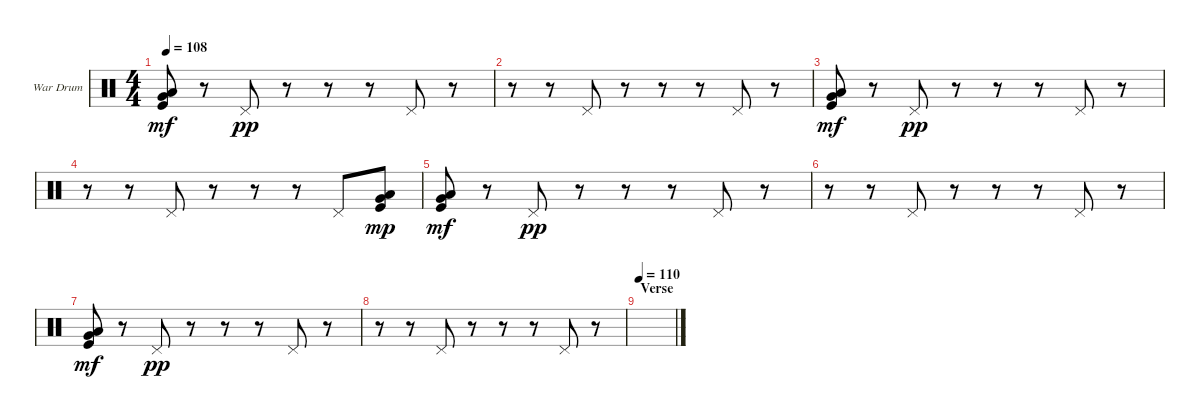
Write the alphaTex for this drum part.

\defaultSystemsLayout 4
\bracketExtendMode groupsimilarinstruments
\firstSystemTrackNameOrientation horizontal
\otherSystemsTrackNameOrientation horizontal
\track ("War Drum" "War Drum") {instrument percussion}
\staff {score}
\articulation defaults
\ts (4 4)
\tempo 108
\clef neutral
\ks c
("Kick (hit)" "Low Tom (hit)" "Very Low Tom (hit)").8{dy mf} r.8 "Pedal Hi-Hat (hit)".8{dy pp} r.8 r.8 r.8 "Pedal Hi-Hat (hit)".8 r.8 |
r.8 r.8 "Pedal Hi-Hat (hit)".8 r.8 r.8 r.8 "Pedal Hi-Hat (hit)".8 r.8 |
("Kick (hit)" "Low Tom (hit)" "Very Low Tom (hit)").8{dy mf} r.8 "Pedal Hi-Hat (hit)".8{dy pp} r.8 r.8 r.8 "Pedal Hi-Hat (hit)".8 r.8 |
r.8 r.8 "Pedal Hi-Hat (hit)".8 r.8 r.8 r.8 "Pedal Hi-Hat (hit)".8 ("Kick (hit)" "Low Tom (hit)" "Very Low Tom (hit)").8{dy mp} |
("Kick (hit)" "Low Tom (hit)" "Very Low Tom (hit)").8{dy mf} r.8 "Pedal Hi-Hat (hit)".8{dy pp} r.8 r.8 r.8 "Pedal Hi-Hat (hit)".8 r.8 |
r.8 r.8 "Pedal Hi-Hat (hit)".8 r.8 r.8 r.8 "Pedal Hi-Hat (hit)".8 r.8 |
("Kick (hit)" "Low Tom (hit)" "Very Low Tom (hit)").8{dy mf} r.8 "Pedal Hi-Hat (hit)".8{dy pp} r.8 r.8 r.8 "Pedal Hi-Hat (hit)".8 r.8 |
r.8 r.8 "Pedal Hi-Hat (hit)".8 r.8 r.8 r.8 "Pedal Hi-Hat (hit)".8 r.8 |
\section ("" "Verse")
\tempo 110
